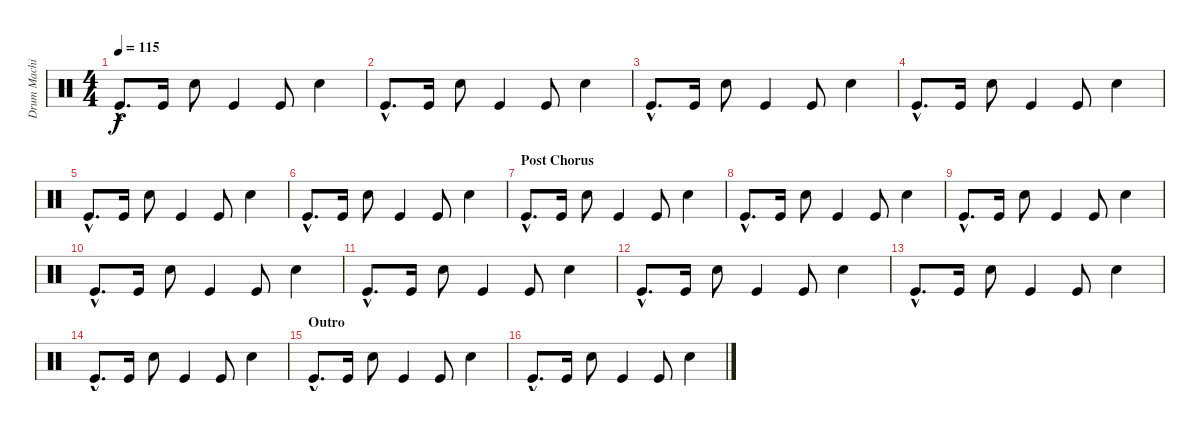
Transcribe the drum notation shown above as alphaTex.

\track ("Drum Machine" "Drum Machi") {instrument percussion}
\staff {score}
\articulation defaults
\ts (4 4)
\tempo 115
\clef neutral
\ks c "Kick (hit)"{hac}.8{d dy f} "Kick (hit)".16 "Snare (hit) 2".8 "Kick (hit)".4 "Kick (hit)".8 "Snare (hit) 2".4
|
"Kick (hit)"{hac}.8{d} "Kick (hit)".16 "Snare (hit) 2".8 "Kick (hit)".4 "Kick (hit)".8 "Snare (hit) 2".4 |
"Kick (hit)"{hac}.8{d} "Kick (hit)".16 "Snare (hit) 2".8 "Kick (hit)".4 "Kick (hit)".8 "Snare (hit) 2".4 |
"Kick (hit)"{hac}.8{d} "Kick (hit)".16 "Snare (hit) 2".8 "Kick (hit)".4 "Kick (hit)".8 "Snare (hit) 2".4 |
"Kick (hit)"{hac}.8{d} "Kick (hit)".16 "Snare (hit) 2".8 "Kick (hit)".4 "Kick (hit)".8 "Snare (hit) 2".4 |
"Kick (hit)"{hac}.8{d} "Kick (hit)".16 "Snare (hit) 2".8 "Kick (hit)".4 "Kick (hit)".8 "Snare (hit) 2".4 |
\section ("" "Post Chorus")
"Kick (hit)"{hac}.8{d} "Kick (hit)".16 "Snare (hit) 2".8 "Kick (hit)".4 "Kick (hit)".8 "Snare (hit) 2".4 |
"Kick (hit)"{hac}.8{d} "Kick (hit)".16 "Snare (hit) 2".8 "Kick (hit)".4 "Kick (hit)".8 "Snare (hit) 2".4 |
"Kick (hit)"{hac}.8{d} "Kick (hit)".16 "Snare (hit) 2".8 "Kick (hit)".4 "Kick (hit)".8 "Snare (hit) 2".4 |
"Kick (hit)"{hac}.8{d} "Kick (hit)".16 "Snare (hit) 2".8 "Kick (hit)".4 "Kick (hit)".8 "Snare (hit) 2".4 |
"Kick (hit)"{hac}.8{d} "Kick (hit)".16 "Snare (hit) 2".8 "Kick (hit)".4 "Kick (hit)".8 "Snare (hit) 2".4 |
"Kick (hit)"{hac}.8{d} "Kick (hit)".16 "Snare (hit) 2".8 "Kick (hit)".4 "Kick (hit)".8 "Snare (hit) 2".4 |
"Kick (hit)"{hac}.8{d} "Kick (hit)".16 "Snare (hit) 2".8 "Kick (hit)".4 "Kick (hit)".8 "Snare (hit) 2".4 |
"Kick (hit)"{hac}.8{d} "Kick (hit)".16 "Snare (hit) 2".8 "Kick (hit)".4 "Kick (hit)".8 "Snare (hit) 2".4 |
\section ("" "Outro")
"Kick (hit)"{hac}.8{d} "Kick (hit)".16 "Snare (hit) 2".8 "Kick (hit)".4 "Kick (hit)".8 "Snare (hit) 2".4 |
"Kick (hit)"{hac}.8{d} "Kick (hit)".16 "Snare (hit) 2".8 "Kick (hit)".4 "Kick (hit)".8 "Snare (hit) 2".4
